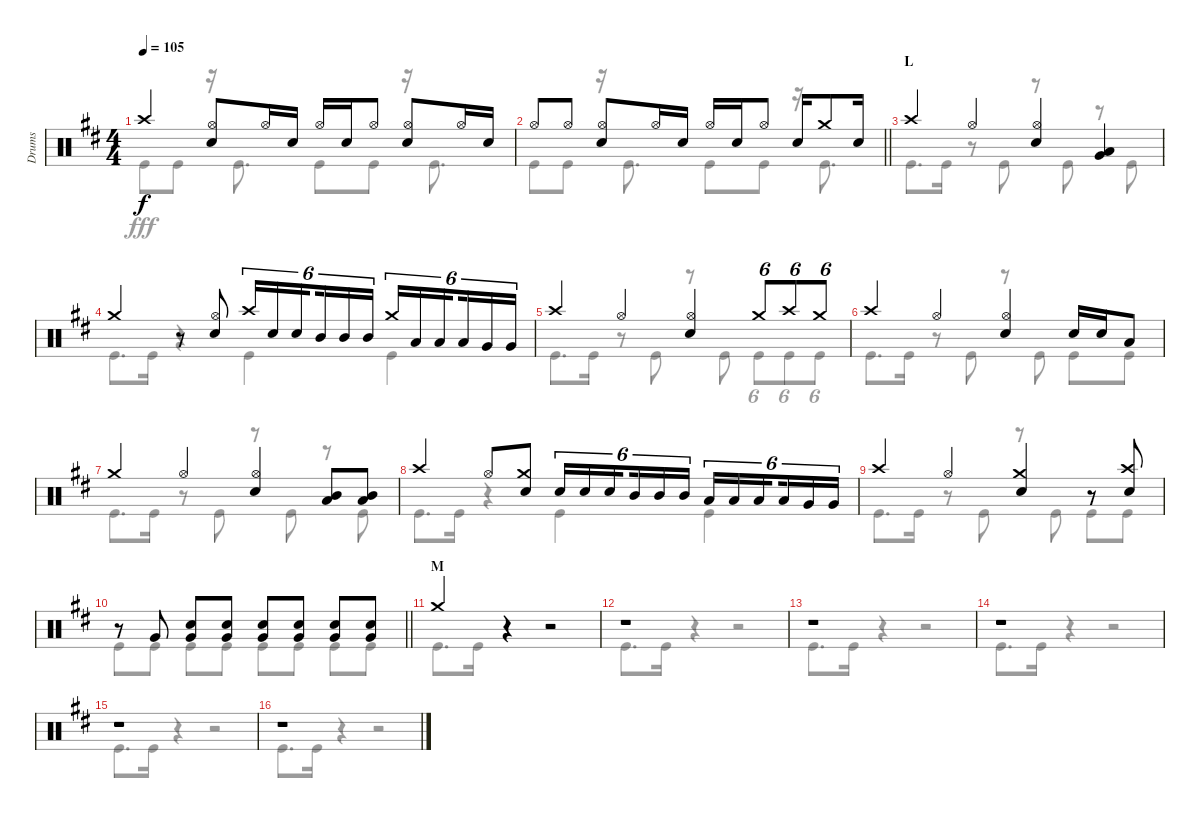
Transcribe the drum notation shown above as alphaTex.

\track ("Drums" "Drums") {instrument percussion}
\staff {score}
\articulation defaults
\voice
\ts (4 4)
\tempo 105
\clef neutral
\ks d "Crash high (hit)".4{dy f}
("Hi-Hat (open)" "Snare (hit) 2").8 "Hi-Hat (open)".16 "Snare (hit) 2".16 "Hi-Hat (open)".16 "Snare (hit) 2".16 "Hi-Hat (open)".8 ("Hi-Hat (open)" "Snare (hit) 2").8 "Hi-Hat (open)".16 "Snare (hit) 2".16 |
\barLineRight lightlight "Hi-Hat (open)".8 "Hi-Hat (open)".8
("Hi-Hat (open)" "Snare (hit) 2").8 "Hi-Hat (open)".16 "Snare (hit) 2".16 "Hi-Hat (open)".16 "Snare (hit) 2".16 "Hi-Hat (open)".8 "Snare (hit) 2".16 "Crash medium (hit)".8 "Snare (hit) 2".16 |
\section ("" "L")
"Crash high (hit)".4 "Hi-Hat (open)".4 ("Hi-Hat (open)" "Snare (hit) 2").4 ("Low Tom (hit)" "Very Low Tom (hit)").4 |
"Crash medium (hit)".4 r.8 ("Hi-Hat (open)" "Snare (hit) 2").8 "Crash high (hit)".16{tu (6 4)} "Snare (hit) 2".16{tu (6 4)} "Snare (hit) 2".16{tu (6 4) beam splitsecondary} "Mid Tom (hit)".16{tu (6 4)} "Mid Tom (hit)".16{tu (6 4)} "Mid Tom (hit)".16{tu (6 4)} "Crash medium (hit)".16{tu (6 4)} "Low Tom (hit)".16{tu (6 4)} "Low Tom (hit)".16{tu (6 4) beam splitsecondary} "Low Tom (hit)".16{tu (6 4)} "Very Low Tom (hit)".16{tu (6 4)} "Very Low Tom (hit)".16{tu (6 4)} |
"Crash high (hit)".4 "Hi-Hat (open)".4 ("Hi-Hat (open)" "Snare (hit) 2").4 "Crash medium (hit)".8{tu (6 4)} "Crash high (hit)".8{tu (6 4)} "Crash medium (hit)".8{tu (6 4)} |
"Crash high (hit)".4 "Hi-Hat (open)".4 ("Hi-Hat (open)" "Snare (hit) 2").4 "Snare (hit) 2".16 "Snare (hit) 2".16 "Low Tom (hit)".8 |
"Crash medium (hit)".4 "Hi-Hat (open)".4 ("Hi-Hat (open)" "Snare (hit) 2").4 ("Mid Tom (hit)" "Low Tom (hit)").8 ("Mid Tom (hit)" "Low Tom (hit)").8 |
"Crash high (hit)".4 "Hi-Hat (open)".8 ("Crash medium (hit)" "Snare (hit) 2").8 "Snare (hit) 2".16{tu (6 4)} "Snare (hit) 2".16{tu (6 4)} "Snare (hit) 2".16{tu (6 4) beam splitsecondary} "Mid Tom (hit)".16{tu (6 4)} "Mid Tom (hit)".16{tu (6 4)} "Mid Tom (hit)".16{tu (6 4)} "Low Tom (hit)".16{tu (6 4)} "Low Tom (hit)".16{tu (6 4)} "Low Tom (hit)".16{tu (6 4) beam splitsecondary} "Low Tom (hit)".16{tu (6 4)} "Very Low Tom (hit)".16{tu (6 4)} "Very Low Tom (hit)".16{tu (6 4)} |
"Crash high (hit)".4 "Hi-Hat (open)".4 ("Crash medium (hit)" "Snare (hit) 2").4 r.8 ("Crash high (hit)" "Snare (hit) 2").8 |
\barLineRight lightlight
r.8 "Very Low Tom (hit)".8 ("Snare (hit) 2" "Very Low Tom (hit)").8 ("Snare (hit) 2" "Very Low Tom (hit)").8 ("Snare (hit) 2" "Very Low Tom (hit)").8 ("Snare (hit) 2" "Very Low Tom (hit)").8 ("Snare (hit) 2" "Very Low Tom (hit)").8 ("Snare (hit) 2" "Very Low Tom (hit)").8 |
\section ("" "M")
"Crash medium (hit)".4 r.4 r.2 |
r.1 |
r.1 |
r.1 |
r.1 |
r.1
\voice
\clef neutral
\ottava regular
\simile none
\ks d "Kick (hit)".8{dy fff} "Kick (hit)".8
r.16 "Kick (hit)".8{d} "Kick (hit)".8 "Kick (hit)".8 r.16 "Kick (hit)".8{d} |
\barLineRight lightlight "Kick (hit)".8 "Kick (hit)".8
r.16 "Kick (hit)".8{d} "Kick (hit)".8 "Kick (hit)".8 r.16 "Kick (hit)".8{d} |
"Kick (hit)".8{d} "Kick (hit)".16 r.8 "Kick (hit)".8 r.8 "Kick (hit)".8 r.8 "Kick (hit)".8 |
"Kick (hit)".8{d} "Kick (hit)".16 r.4 "Kick (hit)".4 "Kick (hit)".4 |
"Kick (hit)".8{d} "Kick (hit)".16 r.8 "Kick (hit)".8 r.8 "Kick (hit)".8 "Kick (hit)".8{tu (6 4)} "Kick (hit)".8{tu (6 4)} "Kick (hit)".8{tu (6 4)} |
"Kick (hit)".8{d} "Kick (hit)".16 r.8 "Kick (hit)".8 r.8 "Kick (hit)".8 "Kick (hit)".8 "Kick (hit)".8 |
"Kick (hit)".8{d} "Kick (hit)".16 r.8 "Kick (hit)".8 r.8 "Kick (hit)".8 r.8 "Kick (hit)".8 |
"Kick (hit)".8{d} "Kick (hit)".16 r.4 "Kick (hit)".4 "Kick (hit)".4 |
"Kick (hit)".8{d} "Kick (hit)".16 r.8 "Kick (hit)".8 r.8 "Kick (hit)".8 "Kick (hit)".8 "Kick (hit)".8 |
\barLineRight lightlight "Kick (hit)".8 "Kick (hit)".8 "Kick (hit)".8 "Kick (hit)".8 "Kick (hit)".8 "Kick (hit)".8 "Kick (hit)".8 "Kick (hit)".8
|
"Kick (hit)".8{d} "Kick (hit)".16 r.4 r.2 |
"Kick (hit)".8{d} "Kick (hit)".16 r.4 r.2 |
"Kick (hit)".8{d} "Kick (hit)".16 r.4 r.2 |
"Kick (hit)".8{d} "Kick (hit)".16 r.4 r.2 |
"Kick (hit)".8{d} "Kick (hit)".16 r.4 r.2 |
"Kick (hit)".8{d} "Kick (hit)".16 r.4 r.2
